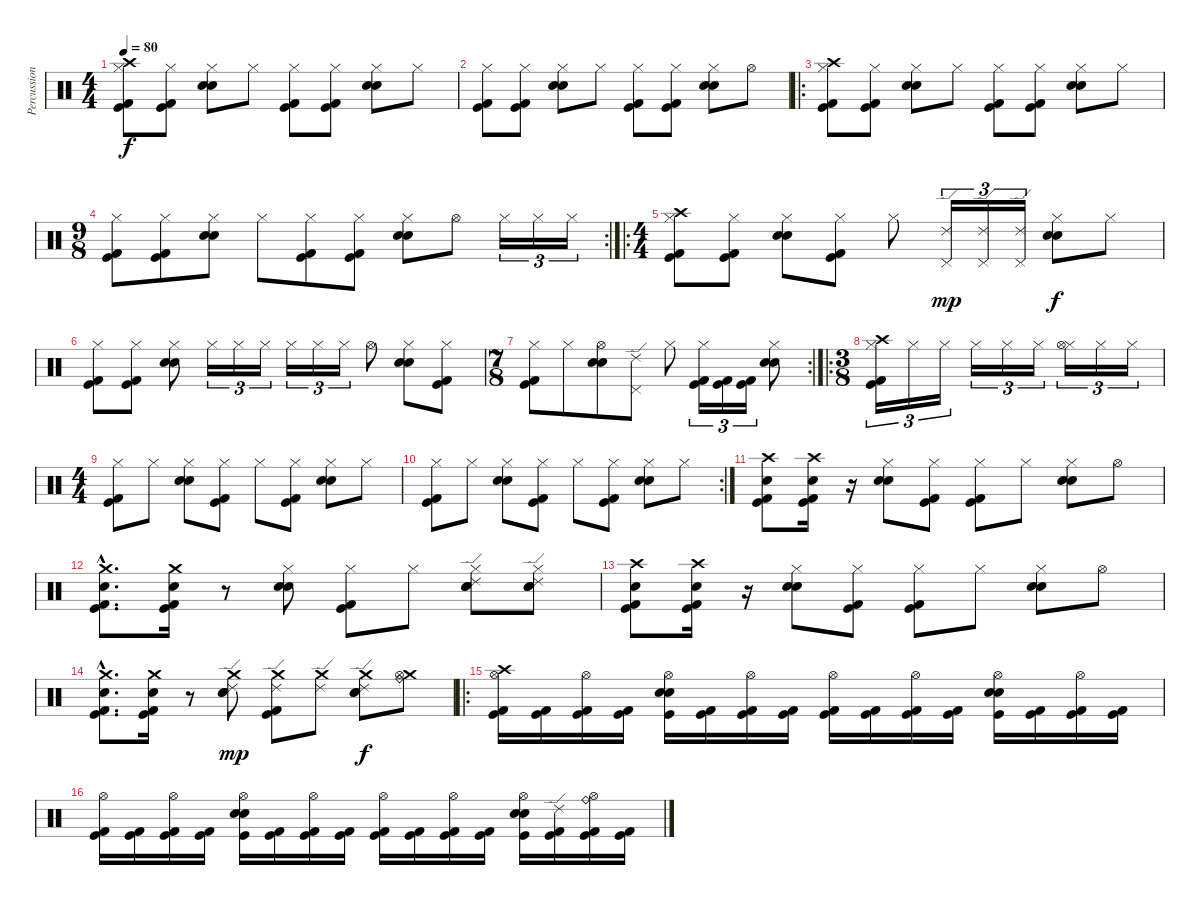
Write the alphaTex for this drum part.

\track ("Percussion" "Percussion") {instrument percussion}
\staff {score}
\articulation defaults
\ts (4 4)
\tempo 80
\clef neutral
\ks c
("Hi-Hat (closed)" "Crash high (hit)" "Kick (hit) 2" "Kick (hit)").8{dy f} ("Hi-Hat (closed)" "Kick (hit) 2" "Kick (hit)").8 ("Hi-Hat (closed)" "Electric Snare (hit)" "Snare (hit) 2").8 "Hi-Hat (closed)".8 ("Hi-Hat (closed)" "Kick (hit) 2" "Kick (hit)").8 ("Hi-Hat (closed)" "Kick (hit) 2" "Kick (hit)").8 ("Hi-Hat (closed)" "Electric Snare (hit)" "Snare (hit) 2").8 "Hi-Hat (closed)".8 |
("Hi-Hat (closed)" "Kick (hit) 2" "Kick (hit)").8 ("Hi-Hat (closed)" "Kick (hit) 2" "Kick (hit)").8 ("Hi-Hat (closed)" "Electric Snare (hit)" "Snare (hit) 2").8 "Hi-Hat (closed)".8 ("Hi-Hat (closed)" "Kick (hit) 2" "Kick (hit)").8 ("Hi-Hat (closed)" "Kick (hit) 2" "Kick (hit)").8 ("Hi-Hat (closed)" "Electric Snare (hit)" "Snare (hit) 2").8 "Hi-Hat (open)".8 |
\ro
("Hi-Hat (closed)" "Crash high (hit)" "Kick (hit) 2" "Kick (hit)").8 ("Hi-Hat (closed)" "Kick (hit) 2" "Kick (hit)").8 ("Hi-Hat (closed)" "Electric Snare (hit)" "Snare (hit) 2").8 "Hi-Hat (closed)".8 ("Hi-Hat (closed)" "Kick (hit) 2" "Kick (hit)").8 ("Hi-Hat (closed)" "Kick (hit) 2" "Kick (hit)").8 ("Hi-Hat (closed)" "Electric Snare (hit)" "Snare (hit) 2").8 "Hi-Hat (closed)".8 |
\rc 2
\ts (9 8)
("Hi-Hat (closed)" "Kick (hit) 2" "Kick (hit)").8 ("Hi-Hat (closed)" "Kick (hit) 2" "Kick (hit)").8 ("Hi-Hat (closed)" "Electric Snare (hit)" "Snare (hit) 2").8 "Hi-Hat (closed)".8 ("Hi-Hat (closed)" "Kick (hit) 2" "Kick (hit)").8 ("Hi-Hat (closed)" "Kick (hit) 2" "Kick (hit)").8 ("Hi-Hat (closed)" "Electric Snare (hit)" "Snare (hit) 2").8 "Hi-Hat (open)".8 "Hi-Hat (closed)".16{tu (3 2)} "Hi-Hat (closed)".16{tu (3 2)} "Hi-Hat (closed)".16{tu (3 2)} |
\ro
\ts (4 4)
("Hi-Hat (closed)" "Crash high (hit)" "Kick (hit) 2" "Kick (hit)").8 ("Hi-Hat (closed)" "Kick (hit) 2" "Kick (hit)").8 ("Hi-Hat (closed)" "Electric Snare (hit)" "Snare (hit) 2").8 ("Hi-Hat (closed)" "Kick (hit) 2" "Kick (hit)").8 "Hi-Hat (closed)".8 ("Ride (edge) 2" "Pedal Hi-Hat (hit)").16{tu (3 2) dy mp} ("Ride (edge) 2" "Pedal Hi-Hat (hit)").16{tu (3 2)} ("Ride (edge) 2" "Pedal Hi-Hat (hit)").16{tu (3 2)} ("Hi-Hat (closed)" "Electric Snare (hit)" "Snare (hit) 2").8{dy f} "Hi-Hat (closed)".8 |
("Hi-Hat (closed)" "Kick (hit) 2" "Kick (hit)").8 ("Hi-Hat (closed)" "Kick (hit) 2" "Kick (hit)").8 ("Hi-Hat (closed)" "Electric Snare (hit)" "Snare (hit) 2").8 "Hi-Hat (closed)".16{tu (3 2)} "Hi-Hat (closed)".16{tu (3 2)} "Hi-Hat (closed)".16{tu (3 2)} "Hi-Hat (closed)".16{tu (3 2)} "Hi-Hat (closed)".16{tu (3 2)} "Hi-Hat (closed)".16{tu (3 2)} "Hi-Hat (open)".8 ("Hi-Hat (closed)" "Electric Snare (hit)" "Snare (hit) 2").8 ("Hi-Hat (closed)" "Kick (hit) 2" "Kick (hit)").8 |
\rc 2
\ts (7 8)
("Hi-Hat (closed)" "Kick (hit) 2" "Kick (hit)").8 "Hi-Hat (closed)".8 ("Hi-Hat (open)" "Electric Snare (hit)" "Snare (hit) 2").8 ("Pedal Hi-Hat (hit)" "Ride (edge) 2").8 "Hi-Hat (closed)".8 ("Hi-Hat (closed)" "Kick (hit) 2" "Kick (hit)").16{tu (3 2)} ("Kick (hit) 2" "Kick (hit)").16{tu (3 2)} ("Kick (hit) 2" "Kick (hit)").16{tu (3 2)} ("Hi-Hat (closed)" "Electric Snare (hit)" "Snare (hit) 2").8 |
\ro
\ts (3 8)
("Hi-Hat (closed)" "Crash high (hit)" "Kick (hit) 2" "Kick (hit)").16{tu (3 2)} "Hi-Hat (closed)".16{tu (3 2)} "Hi-Hat (closed)".16{tu (3 2)} "Hi-Hat (closed)".16{tu (3 2)} "Hi-Hat (closed)".16{tu (3 2)} "Hi-Hat (closed)".16{tu (3 2)} ("Hi-Hat (closed)" "Hi-Hat (open)").16{tu (3 2)} "Hi-Hat (closed)".16{tu (3 2)} "Hi-Hat (closed)".16{tu (3 2)} |
\ts (4 4)
("Hi-Hat (closed)" "Kick (hit) 2" "Kick (hit)").8 "Hi-Hat (closed)".8 ("Hi-Hat (closed)" "Electric Snare (hit)" "Snare (hit) 2").8 ("Hi-Hat (closed)" "Kick (hit) 2" "Kick (hit)").8 "Hi-Hat (closed)".8 ("Hi-Hat (closed)" "Kick (hit) 2" "Kick (hit)").8 ("Hi-Hat (closed)" "Electric Snare (hit)" "Snare (hit) 2").8 "Hi-Hat (closed)".8 |
\rc 2
("Hi-Hat (closed)" "Kick (hit) 2" "Kick (hit)").8 "Hi-Hat (closed)".8 ("Hi-Hat (closed)" "Electric Snare (hit)" "Snare (hit) 2").8 ("Hi-Hat (closed)" "Kick (hit) 2" "Kick (hit)").8 "Hi-Hat (closed)".8 ("Hi-Hat (closed)" "Kick (hit) 2" "Kick (hit)").8 ("Hi-Hat (closed)" "Electric Snare (hit)" "Snare (hit) 2").8 "Hi-Hat (closed)".8 |
("Crash high (hit)" "Snare (hit) 2" "Kick (hit) 2" "Kick (hit)").8 ("Crash high (hit)" "Snare (hit) 2" "Kick (hit) 2" "Kick (hit)").16 r.16 ("Hi-Hat (closed)" "Electric Snare (hit)" "Snare (hit) 2").8 ("Hi-Hat (closed)" "Kick (hit) 2" "Kick (hit)").8 ("Hi-Hat (closed)" "Kick (hit) 2" "Kick (hit)").8 "Hi-Hat (closed)".8 ("Hi-Hat (closed)" "Electric Snare (hit)" "Snare (hit) 2").8 "Hi-Hat (open)".8 |
("Crash medium (hit)"{hac} "Snare (hit) 2"{hac} "Kick (hit) 2"{hac} "Kick (hit)"{hac}).8{d} ("Crash medium (hit)" "Snare (hit) 2" "Kick (hit) 2" "Kick (hit)").16 r.8 ("Hi-Hat (closed)" "Electric Snare (hit)" "Snare (hit) 2").8 ("Hi-Hat (closed)" "Kick (hit) 2" "Kick (hit)").8 "Hi-Hat (closed)".8 ("Hi-Hat (closed)" "Ride (edge) 2" "Electric Snare (hit)" "Snare (hit) 2").8 ("Hi-Hat (closed)" "Ride (edge) 2" "Electric Snare (hit)" "Snare (hit) 2").8 |
("Crash high (hit)" "Snare (hit) 2" "Kick (hit) 2" "Kick (hit)").8 ("Crash high (hit)" "Snare (hit) 2" "Kick (hit) 2" "Kick (hit)").16 r.16 ("Hi-Hat (closed)" "Electric Snare (hit)" "Snare (hit) 2").8 ("Hi-Hat (closed)" "Kick (hit) 2" "Kick (hit)").8 ("Hi-Hat (closed)" "Kick (hit) 2" "Kick (hit)").8 "Hi-Hat (closed)".8 ("Hi-Hat (closed)" "Electric Snare (hit)" "Snare (hit) 2").8 "Hi-Hat (open)".8 |
("Crash medium (hit)"{hac} "Snare (hit) 2"{hac} "Kick (hit) 2"{hac} "Kick (hit)"{hac}).8{d} ("Crash medium (hit)" "Snare (hit) 2" "Kick (hit) 2" "Kick (hit)").16 r.8 ("Crash medium (hit)" "Ride (edge) 2" "Electric Snare (hit)" "Snare (hit) 2").8{dy mp} ("Crash medium (hit)" "Ride (edge) 2" "Kick (hit) 2" "Kick (hit)").8 ("Crash medium (hit)" "Ride (edge) 2").8 ("Crash medium (hit)" "Ride (edge) 2" "Electric Snare (hit)" "Snare (hit) 2").8{dy f} ("Crash medium (hit)" "Ride (bell)" "Hi-Hat (open)").8 |
\ro
("Hi-Hat (open)" "Crash high (hit)" "Kick (hit) 2" "Kick (hit)").16 ("Kick (hit) 2" "Kick (hit)").16 ("Hi-Hat (open)" "Kick (hit) 2" "Kick (hit)").16 ("Kick (hit) 2" "Kick (hit)").16 ("Hi-Hat (open)" "Electric Snare (hit)" "Snare (hit) 2" "Kick (hit)").16 ("Kick (hit) 2" "Kick (hit)").16 ("Hi-Hat (open)" "Kick (hit) 2" "Kick (hit)").16 ("Kick (hit) 2" "Kick (hit)").16 ("Hi-Hat (open)" "Kick (hit) 2" "Kick (hit)").16 ("Kick (hit) 2" "Kick (hit)").16 ("Hi-Hat (open)" "Kick (hit) 2" "Kick (hit)").16 ("Kick (hit) 2" "Kick (hit)").16 ("Hi-Hat (open)" "Electric Snare (hit)" "Snare (hit) 2" "Kick (hit)").16 ("Kick (hit) 2" "Kick (hit)").16 ("Hi-Hat (open)" "Kick (hit) 2" "Kick (hit)").16 ("Kick (hit) 2" "Kick (hit)").16 |
("Hi-Hat (open)" "Kick (hit) 2" "Kick (hit)").16 ("Kick (hit) 2" "Kick (hit)").16 ("Hi-Hat (open)" "Kick (hit) 2" "Kick (hit)").16 ("Kick (hit) 2" "Kick (hit)").16 ("Hi-Hat (open)" "Electric Snare (hit)" "Snare (hit) 2" "Kick (hit)").16 ("Kick (hit) 2" "Kick (hit)").16 ("Hi-Hat (open)" "Kick (hit) 2" "Kick (hit)").16 ("Kick (hit) 2" "Kick (hit)").16 ("Hi-Hat (open)" "Kick (hit) 2" "Kick (hit)").16 ("Kick (hit) 2" "Kick (hit)").16 ("Hi-Hat (open)" "Kick (hit) 2" "Kick (hit)").16 ("Kick (hit) 2" "Kick (hit)").16 ("Hi-Hat (open)" "Electric Snare (hit)" "Snare (hit) 2" "Kick (hit)").16 ("Ride (edge) 2" "Kick (hit) 2" "Kick (hit)").16 ("Hi-Hat (open)" "Ride (bell)" "Kick (hit) 2" "Kick (hit)").16 ("Kick (hit) 2" "Kick (hit)").16
